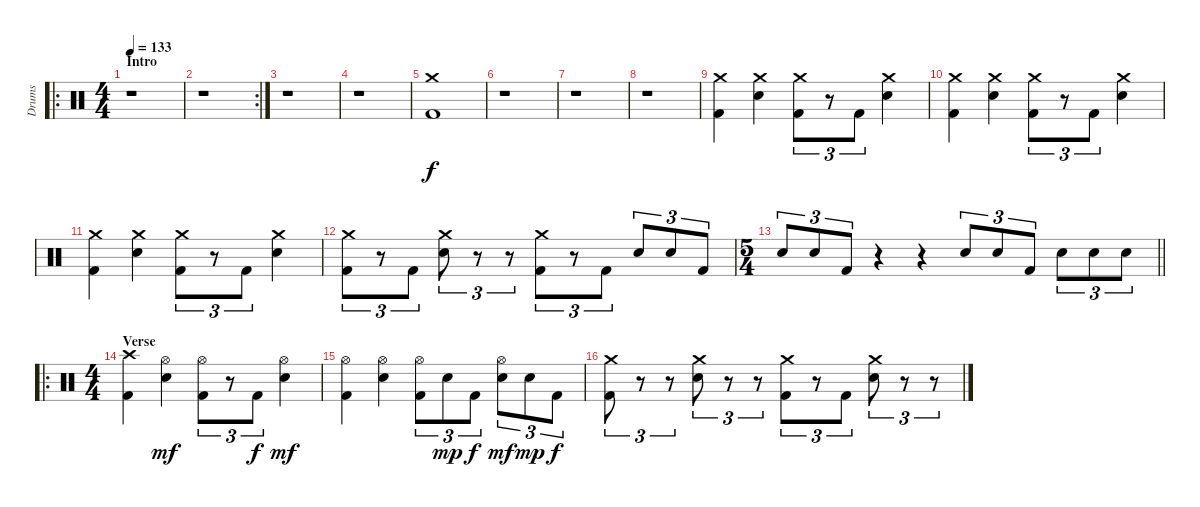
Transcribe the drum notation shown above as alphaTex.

\track ("Drums" "Drums") {instrument percussion}
\staff {score}
\articulation defaults
\ro
\ts (4 4)
\section ("" "Intro")
\tempo 133
\clef neutral
\ks c
r.1{dy f} |
\rc 2
r.1 |
r.1 |
r.1 |
("Crash medium (hit)" "Kick (hit) 2").1 |
r.1 |
r.1 |
r.1 |
("Crash medium (hit)" "Kick (hit) 2").4 ("Crash medium (hit)" "Electric Snare (hit)").4 ("Crash medium (hit)" "Kick (hit) 2").8{tu (3 2)} r.8{tu (3 2)} "Kick (hit) 2".8{tu (3 2)} ("Crash medium (hit)" "Electric Snare (hit)").4 |
("Crash medium (hit)" "Kick (hit) 2").4 ("Crash medium (hit)" "Electric Snare (hit)").4 ("Crash medium (hit)" "Kick (hit) 2").8{tu (3 2)} r.8{tu (3 2)} "Kick (hit) 2".8{tu (3 2)} ("Crash medium (hit)" "Electric Snare (hit)").4 |
("Crash medium (hit)" "Kick (hit) 2").4 ("Crash medium (hit)" "Electric Snare (hit)").4 ("Crash medium (hit)" "Kick (hit) 2").8{tu (3 2)} r.8{tu (3 2)} "Kick (hit) 2".8{tu (3 2)} ("Crash medium (hit)" "Electric Snare (hit)").4 |
("Crash medium (hit)" "Kick (hit) 2").8{tu (3 2)} r.8{tu (3 2)} "Kick (hit) 2".8{tu (3 2)} ("Crash medium (hit)" "Electric Snare (hit)").8{tu (3 2)} r.8{tu (3 2)} r.8{tu (3 2)} ("Crash medium (hit)" "Kick (hit) 2").8{tu (3 2)} r.8{tu (3 2)} "Kick (hit) 2".8{tu (3 2)} "Electric Snare (hit)".8{tu (3 2)} "Electric Snare (hit)".8{tu (3 2)} "Kick (hit) 2".8{tu (3 2)} |
\ts (5 4)
\barLineRight lightlight "Electric Snare (hit)".8{tu (3 2)} "Electric Snare (hit)".8{tu (3 2)} "Kick (hit) 2".8{tu (3 2)}
r.4 r.4 "Electric Snare (hit)".8{tu (3 2)} "Electric Snare (hit)".8{tu (3 2)} "Kick (hit) 2".8{tu (3 2)} "Electric Snare (hit)".8{tu (3 2)} "Electric Snare (hit)".8{tu (3 2)} "Electric Snare (hit)".8{tu (3 2)} |
\ro
\ts (4 4)
\section ("" "Verse")
("Crash high (hit)" "Kick (hit) 2").4 ("Hi-Hat (open)" "Electric Snare (hit)").4{dy mf} ("Hi-Hat (open)" "Kick (hit) 2").8{tu (3 2)} r.8{tu (3 2)} "Kick (hit) 2".8{tu (3 2) dy f} ("Hi-Hat (open)" "Electric Snare (hit)").4{dy mf} |
("Hi-Hat (open)" "Kick (hit) 2").4 ("Hi-Hat (open)" "Electric Snare (hit)").4 ("Hi-Hat (open)" "Kick (hit) 2").8{tu (3 2)} "Electric Snare (hit)".8{tu (3 2) dy mp} "Kick (hit) 2".8{tu (3 2) dy f} ("Hi-Hat (open)" "Electric Snare (hit)").8{tu (3 2) dy mf} "Electric Snare (hit)".8{tu (3 2) dy mp} "Kick (hit) 2".8{tu (3 2) dy f} |
("Crash medium (hit)" "Kick (hit) 2").8{tu (3 2)} r.8{tu (3 2)} r.8{tu (3 2)} ("Crash medium (hit)" "Electric Snare (hit)").8{tu (3 2)} r.8{tu (3 2)} r.8{tu (3 2)} ("Crash medium (hit)" "Kick (hit) 2").8{tu (3 2)} r.8{tu (3 2)} "Kick (hit) 2".8{tu (3 2)} ("Crash medium (hit)" "Electric Snare (hit)").8{tu (3 2)} r.8{tu (3 2)} r.8{tu (3 2)}
